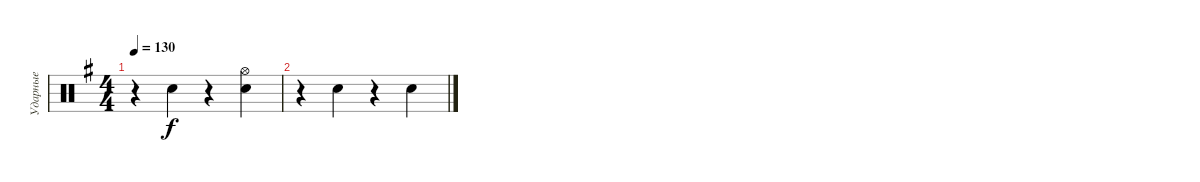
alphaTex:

\track ("Ударные" "Ударные") {instrument percussion}
\staff {score}
\articulation defaults
\ts (4 4)
\tempo 130
\clef neutral
\ks g
r.4{dy f} "Electric Snare (hit)".4 r.4 ("Electric Snare (hit)" "Hi-Hat (open)").4 |
r.4 "Electric Snare (hit)".4 r.4 "Electric Snare (hit)".4
